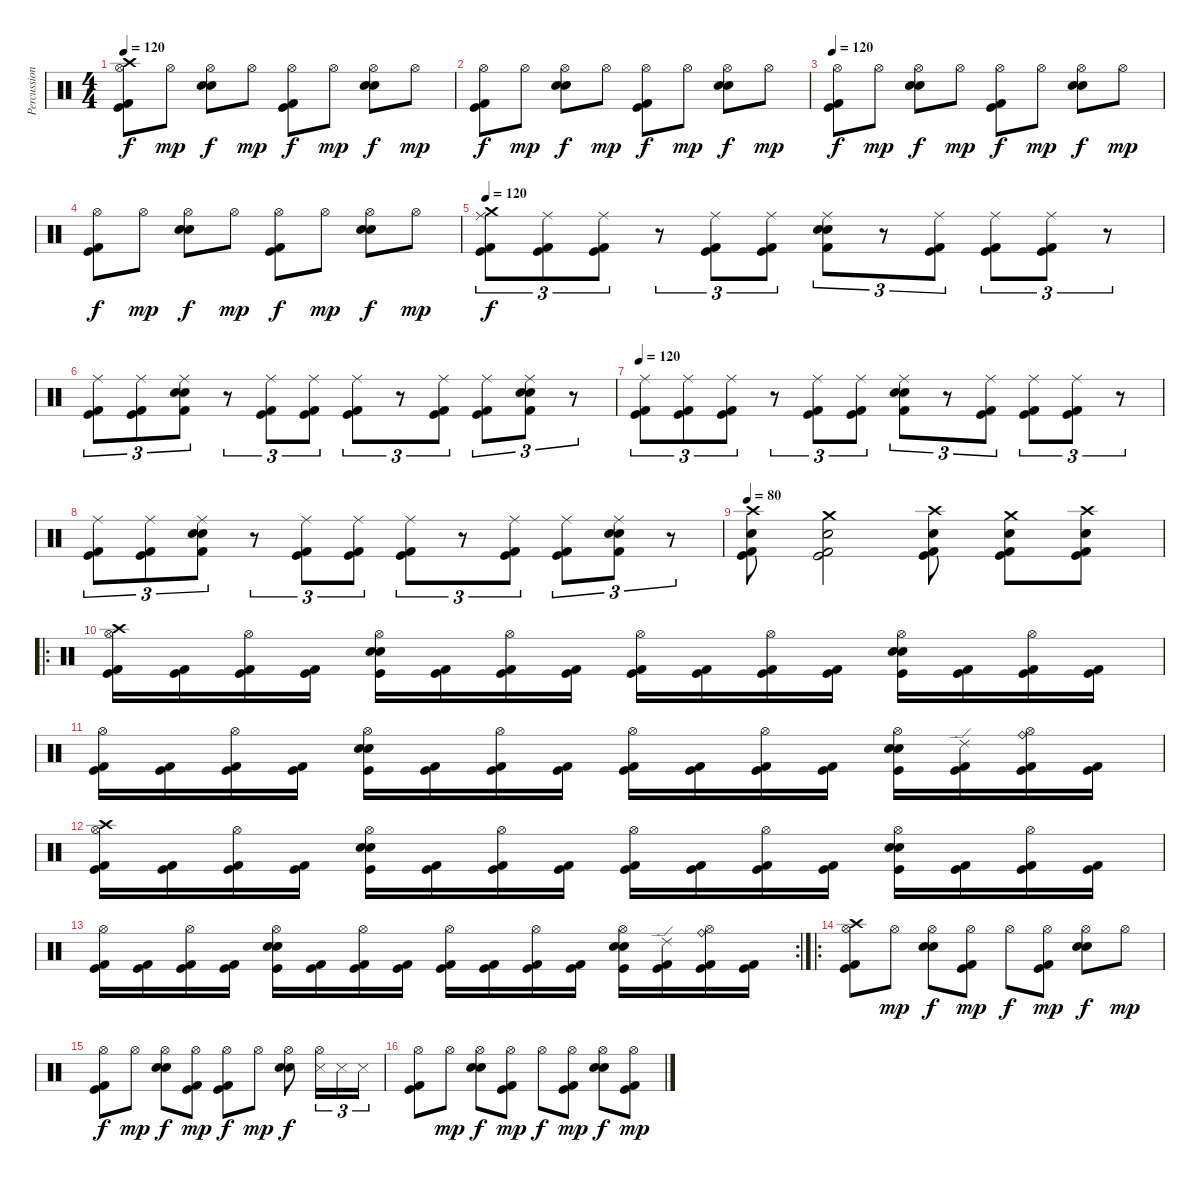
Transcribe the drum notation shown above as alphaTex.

\track ("Percussion" "Percussion") {instrument percussion}
\staff {score}
\articulation defaults
\ts (4 4)
\tempo 120
\clef neutral
\ks c
("Hi-Hat (open)" "Crash high (hit)" "Kick (hit) 2" "Kick (hit)").8{dy f} "Hi-Hat (open)".8{dy mp} ("Hi-Hat (open)" "Electric Snare (hit)" "Snare (hit) 2").8{dy f} "Hi-Hat (open)".8{dy mp} ("Hi-Hat (open)" "Kick (hit) 2" "Kick (hit)").8{dy f} "Hi-Hat (open)".8{dy mp} ("Hi-Hat (open)" "Electric Snare (hit)" "Snare (hit) 2").8{dy f} "Hi-Hat (open)".8{dy mp} |
("Hi-Hat (open)" "Kick (hit) 2" "Kick (hit)").8{dy f} "Hi-Hat (open)".8{dy mp} ("Hi-Hat (open)" "Electric Snare (hit)" "Snare (hit) 2").8{dy f} "Hi-Hat (open)".8{dy mp} ("Hi-Hat (open)" "Kick (hit) 2" "Kick (hit)").8{dy f} "Hi-Hat (open)".8{dy mp} ("Hi-Hat (open)" "Electric Snare (hit)" "Snare (hit) 2").8{dy f} "Hi-Hat (open)".8{dy mp} |
\tempo 120
("Hi-Hat (open)" "Kick (hit) 2" "Kick (hit)").8{dy f} "Hi-Hat (open)".8{dy mp} ("Hi-Hat (open)" "Electric Snare (hit)" "Snare (hit) 2").8{dy f} "Hi-Hat (open)".8{dy mp} ("Hi-Hat (open)" "Kick (hit) 2" "Kick (hit)").8{dy f} "Hi-Hat (open)".8{dy mp} ("Hi-Hat (open)" "Electric Snare (hit)" "Snare (hit) 2").8{dy f} "Hi-Hat (open)".8{dy mp} |
("Hi-Hat (open)" "Kick (hit) 2" "Kick (hit)").8{dy f} "Hi-Hat (open)".8{dy mp} ("Hi-Hat (open)" "Electric Snare (hit)" "Snare (hit) 2").8{dy f} "Hi-Hat (open)".8{dy mp} ("Hi-Hat (open)" "Kick (hit) 2" "Kick (hit)").8{dy f} "Hi-Hat (open)".8{dy mp} ("Hi-Hat (open)" "Electric Snare (hit)" "Snare (hit) 2").8{dy f} "Hi-Hat (open)".8{dy mp} |
\tempo 120
("Ride (middle)" "Crash medium (hit)" "Kick (hit) 2" "Kick (hit)").8{tu (3 2) dy f} ("Ride (middle)" "Kick (hit) 2" "Kick (hit)").8{tu (3 2)} ("Ride (middle)" "Kick (hit) 2" "Kick (hit)").8{tu (3 2)} r.8{tu (3 2)} ("Ride (middle)" "Kick (hit) 2" "Kick (hit)").8{tu (3 2)} ("Ride (middle)" "Kick (hit) 2" "Kick (hit)").8{tu (3 2)} ("Ride (middle)" "Electric Snare (hit)" "Snare (hit) 2" "Kick (hit) 2").8{tu (3 2)} r.8{tu (3 2)} ("Ride (middle)" "Kick (hit) 2" "Kick (hit)").8{tu (3 2)} ("Ride (middle)" "Kick (hit) 2" "Kick (hit)").8{tu (3 2)} ("Ride (middle)" "Kick (hit) 2" "Kick (hit)").8{tu (3 2)} r.8{tu (3 2)} |
("Ride (middle)" "Kick (hit) 2" "Kick (hit)").8{tu (3 2)} ("Ride (middle)" "Kick (hit) 2" "Kick (hit)").8{tu (3 2)} ("Ride (middle)" "Electric Snare (hit)" "Snare (hit) 2" "Kick (hit) 2").8{tu (3 2)} r.8{tu (3 2)} ("Ride (middle)" "Kick (hit) 2" "Kick (hit)").8{tu (3 2)} ("Ride (middle)" "Kick (hit) 2" "Kick (hit)").8{tu (3 2)} ("Ride (middle)" "Kick (hit) 2" "Kick (hit)").8{tu (3 2)} r.8{tu (3 2)} ("Ride (middle)" "Kick (hit) 2" "Kick (hit)").8{tu (3 2)} ("Ride (middle)" "Kick (hit) 2" "Kick (hit)").8{tu (3 2)} ("Ride (middle)" "Electric Snare (hit)" "Snare (hit) 2" "Kick (hit) 2").8{tu (3 2)} r.8{tu (3 2)} |
\tempo 120
("Ride (middle)" "Kick (hit) 2" "Kick (hit)").8{tu (3 2)} ("Ride (middle)" "Kick (hit) 2" "Kick (hit)").8{tu (3 2)} ("Ride (middle)" "Kick (hit) 2" "Kick (hit)").8{tu (3 2)} r.8{tu (3 2)} ("Ride (middle)" "Kick (hit) 2" "Kick (hit)").8{tu (3 2)} ("Ride (middle)" "Kick (hit) 2" "Kick (hit)").8{tu (3 2)} ("Ride (middle)" "Electric Snare (hit)" "Snare (hit) 2" "Kick (hit) 2").8{tu (3 2)} r.8{tu (3 2)} ("Ride (middle)" "Kick (hit) 2" "Kick (hit)").8{tu (3 2)} ("Ride (middle)" "Kick (hit) 2" "Kick (hit)").8{tu (3 2)} ("Ride (middle)" "Kick (hit) 2" "Kick (hit)").8{tu (3 2)} r.8{tu (3 2)} |
("Ride (middle)" "Kick (hit) 2" "Kick (hit)").8{tu (3 2)} ("Ride (middle)" "Kick (hit) 2" "Kick (hit)").8{tu (3 2)} ("Ride (middle)" "Electric Snare (hit)" "Snare (hit) 2" "Kick (hit) 2").8{tu (3 2)} r.8{tu (3 2)} ("Ride (middle)" "Kick (hit) 2" "Kick (hit)").8{tu (3 2)} ("Ride (middle)" "Kick (hit) 2" "Kick (hit)").8{tu (3 2)} ("Ride (middle)" "Kick (hit) 2" "Kick (hit)").8{tu (3 2)} r.8{tu (3 2)} ("Ride (middle)" "Kick (hit) 2" "Kick (hit)").8{tu (3 2)} ("Ride (middle)" "Kick (hit) 2" "Kick (hit)").8{tu (3 2)} ("Ride (middle)" "Electric Snare (hit)" "Snare (hit) 2" "Kick (hit) 2").8{tu (3 2)} r.8{tu (3 2)} |
\tempo 80
("Crash high (hit)" "Snare (hit) 2" "Kick (hit) 2" "Kick (hit)").8 ("Crash medium (hit)" "Snare (hit) 2" "Kick (hit) 2" "Kick (hit)").2 ("Crash high (hit)" "Snare (hit) 2" "Kick (hit) 2" "Kick (hit)").8 ("Crash medium (hit)" "Snare (hit) 2" "Kick (hit) 2" "Kick (hit)").8 ("Crash high (hit)" "Snare (hit) 2" "Kick (hit) 2" "Kick (hit)").8 |
\ro
("Hi-Hat (open)" "Crash high (hit)" "Kick (hit) 2" "Kick (hit)").16 ("Kick (hit) 2" "Kick (hit)").16 ("Hi-Hat (open)" "Kick (hit) 2" "Kick (hit)").16 ("Kick (hit) 2" "Kick (hit)").16 ("Hi-Hat (open)" "Electric Snare (hit)" "Snare (hit) 2" "Kick (hit)").16 ("Kick (hit) 2" "Kick (hit)").16 ("Hi-Hat (open)" "Kick (hit) 2" "Kick (hit)").16 ("Kick (hit) 2" "Kick (hit)").16 ("Hi-Hat (open)" "Kick (hit) 2" "Kick (hit)").16 ("Kick (hit) 2" "Kick (hit)").16 ("Hi-Hat (open)" "Kick (hit) 2" "Kick (hit)").16 ("Kick (hit) 2" "Kick (hit)").16 ("Hi-Hat (open)" "Electric Snare (hit)" "Snare (hit) 2" "Kick (hit)").16 ("Kick (hit) 2" "Kick (hit)").16 ("Hi-Hat (open)" "Kick (hit) 2" "Kick (hit)").16 ("Kick (hit) 2" "Kick (hit)").16 |
("Hi-Hat (open)" "Kick (hit) 2" "Kick (hit)").16 ("Kick (hit) 2" "Kick (hit)").16 ("Hi-Hat (open)" "Kick (hit) 2" "Kick (hit)").16 ("Kick (hit) 2" "Kick (hit)").16 ("Hi-Hat (open)" "Electric Snare (hit)" "Snare (hit) 2" "Kick (hit)").16 ("Kick (hit) 2" "Kick (hit)").16 ("Hi-Hat (open)" "Kick (hit) 2" "Kick (hit)").16 ("Kick (hit) 2" "Kick (hit)").16 ("Hi-Hat (open)" "Kick (hit) 2" "Kick (hit)").16 ("Kick (hit) 2" "Kick (hit)").16 ("Hi-Hat (open)" "Kick (hit) 2" "Kick (hit)").16 ("Kick (hit) 2" "Kick (hit)").16 ("Hi-Hat (open)" "Electric Snare (hit)" "Snare (hit) 2" "Kick (hit)").16 ("Ride (edge) 2" "Kick (hit) 2" "Kick (hit)").16 ("Hi-Hat (open)" "Ride (bell)" "Kick (hit) 2" "Kick (hit)").16 ("Kick (hit) 2" "Kick (hit)").16 |
("Hi-Hat (open)" "Crash high (hit)" "Kick (hit) 2" "Kick (hit)").16 ("Kick (hit) 2" "Kick (hit)").16 ("Hi-Hat (open)" "Kick (hit) 2" "Kick (hit)").16 ("Kick (hit) 2" "Kick (hit)").16 ("Hi-Hat (open)" "Electric Snare (hit)" "Snare (hit) 2" "Kick (hit)").16 ("Kick (hit) 2" "Kick (hit)").16 ("Hi-Hat (open)" "Kick (hit) 2" "Kick (hit)").16 ("Kick (hit) 2" "Kick (hit)").16 ("Hi-Hat (open)" "Kick (hit) 2" "Kick (hit)").16 ("Kick (hit) 2" "Kick (hit)").16 ("Hi-Hat (open)" "Kick (hit) 2" "Kick (hit)").16 ("Kick (hit) 2" "Kick (hit)").16 ("Hi-Hat (open)" "Electric Snare (hit)" "Snare (hit) 2" "Kick (hit)").16 ("Kick (hit) 2" "Kick (hit)").16 ("Hi-Hat (open)" "Kick (hit) 2" "Kick (hit)").16 ("Kick (hit) 2" "Kick (hit)").16 |
\rc 2
("Hi-Hat (open)" "Kick (hit) 2" "Kick (hit)").16 ("Kick (hit) 2" "Kick (hit)").16 ("Hi-Hat (open)" "Kick (hit) 2" "Kick (hit)").16 ("Kick (hit) 2" "Kick (hit)").16 ("Hi-Hat (open)" "Electric Snare (hit)" "Snare (hit) 2" "Kick (hit)").16 ("Kick (hit) 2" "Kick (hit)").16 ("Hi-Hat (open)" "Kick (hit) 2" "Kick (hit)").16 ("Kick (hit) 2" "Kick (hit)").16 ("Hi-Hat (open)" "Kick (hit) 2" "Kick (hit)").16 ("Kick (hit) 2" "Kick (hit)").16 ("Hi-Hat (open)" "Kick (hit) 2" "Kick (hit)").16 ("Kick (hit) 2" "Kick (hit)").16 ("Hi-Hat (open)" "Electric Snare (hit)" "Snare (hit) 2" "Kick (hit)").16 ("Ride (edge) 2" "Kick (hit) 2" "Kick (hit)").16 ("Hi-Hat (open)" "Ride (bell)" "Kick (hit) 2" "Kick (hit)").16 ("Kick (hit) 2" "Kick (hit)").16 |
\ro
("Hi-Hat (open)" "Crash high (hit)" "Kick (hit) 2" "Kick (hit)").8 "Hi-Hat (open)".8{dy mp} ("Hi-Hat (open)" "Electric Snare (hit)" "Snare (hit) 2").8{dy f} ("Hi-Hat (open)" "Kick (hit) 2" "Kick (hit)").8{dy mp} "Hi-Hat (open)".8{dy f} ("Hi-Hat (open)" "Kick (hit) 2" "Kick (hit)").8{dy mp} ("Hi-Hat (open)" "Electric Snare (hit)" "Snare (hit) 2").8{dy f} "Hi-Hat (open)".8{dy mp} |
("Hi-Hat (open)" "Kick (hit) 2" "Kick (hit)").8{dy f} "Hi-Hat (open)".8{dy mp} ("Hi-Hat (open)" "Electric Snare (hit)" "Snare (hit) 2").8{dy f} ("Hi-Hat (open)" "Kick (hit) 2" "Kick (hit)").8{dy mp} ("Hi-Hat (open)" "Kick (hit) 2" "Kick (hit)").8{dy f} "Hi-Hat (open)".8{dy mp} ("Hi-Hat (open)" "Electric Snare (hit)" "Snare (hit) 2").8{dy f} ("Hi-Hat (open)" "Snare (side stick) 3").16{tu (3 2)} "Snare (side stick) 3".16{tu (3 2)} "Snare (side stick) 3".16{tu (3 2)} |
("Hi-Hat (open)" "Kick (hit) 2" "Kick (hit)").8 "Hi-Hat (open)".8{dy mp} ("Hi-Hat (open)" "Electric Snare (hit)" "Snare (hit) 2").8{dy f} ("Hi-Hat (open)" "Kick (hit) 2" "Kick (hit)").8{dy mp} "Hi-Hat (open)".8{dy f} ("Hi-Hat (open)" "Kick (hit) 2" "Kick (hit)").8{dy mp} ("Hi-Hat (open)" "Electric Snare (hit)" "Snare (hit) 2").8{dy f} ("Hi-Hat (open)" "Kick (hit) 2" "Kick (hit)").8{dy mp}
